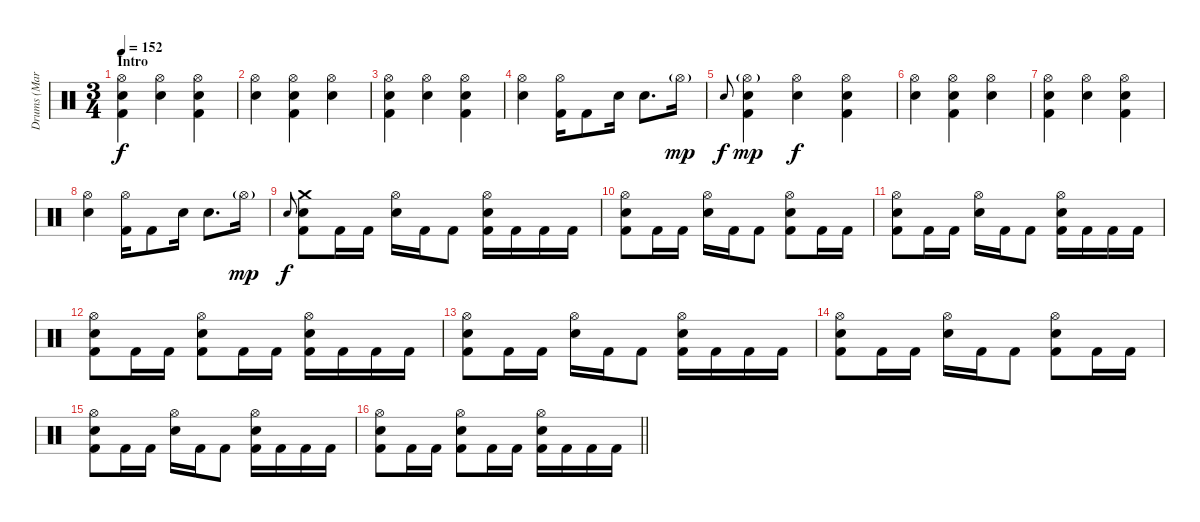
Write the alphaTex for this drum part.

\track ("Drums (Mark Arrington)" "Drums (Mar") {instrument percussion}
\staff {score}
\articulation defaults
\ts (3 4)
\section ("" "Intro")
\tempo 152
\clef neutral
\ks aminor
("Hi-Hat (open)" "Electric Snare (hit)" "Kick (hit) 2").4{dy f} ("Hi-Hat (open)" "Electric Snare (hit)").4 ("Hi-Hat (open)" "Electric Snare (hit)" "Kick (hit) 2").4 |
("Hi-Hat (open)" "Electric Snare (hit)").4 ("Hi-Hat (open)" "Electric Snare (hit)" "Kick (hit) 2").4 ("Hi-Hat (open)" "Electric Snare (hit)").4 |
("Hi-Hat (open)" "Electric Snare (hit)" "Kick (hit) 2").4 ("Hi-Hat (open)" "Electric Snare (hit)").4 ("Hi-Hat (open)" "Electric Snare (hit)" "Kick (hit) 2").4 |
("Hi-Hat (open)" "Electric Snare (hit)").4 ("Hi-Hat (open)" "Kick (hit) 2").16 "Kick (hit) 2".8 "Electric Snare (hit)".16 "Electric Snare (hit)".8{d} "Hi-Hat (open)"{g}.16{dy mp} |
"Electric Snare (hit)".8{gr onbeat dy f} ("Hi-Hat (open)"{g} "Electric Snare (hit)" "Kick (hit) 2").4{dy mp} ("Hi-Hat (open)" "Electric Snare (hit)").4{dy f} ("Hi-Hat (open)" "Electric Snare (hit)" "Kick (hit) 2").4 |
("Hi-Hat (open)" "Electric Snare (hit)").4 ("Hi-Hat (open)" "Electric Snare (hit)" "Kick (hit) 2").4 ("Hi-Hat (open)" "Electric Snare (hit)").4 |
("Hi-Hat (open)" "Electric Snare (hit)" "Kick (hit) 2").4 ("Hi-Hat (open)" "Electric Snare (hit)").4 ("Hi-Hat (open)" "Electric Snare (hit)" "Kick (hit) 2").4 |
("Hi-Hat (open)" "Electric Snare (hit)").4 ("Hi-Hat (open)" "Kick (hit) 2").16 "Kick (hit) 2".8 "Electric Snare (hit)".16 "Electric Snare (hit)".8{d} "Hi-Hat (open)"{g}.16{dy mp} |
"Electric Snare (hit)".8{gr onbeat dy f} ("Crash medium (hit)" "Electric Snare (hit)" "Kick (hit) 2").8 "Kick (hit) 2".16 "Kick (hit) 2".16 ("Hi-Hat (open)" "Electric Snare (hit)").16 "Kick (hit) 2".16 "Kick (hit) 2".8 ("Hi-Hat (open)" "Electric Snare (hit)" "Kick (hit) 2").16 "Kick (hit) 2".16 "Kick (hit) 2".16 "Kick (hit) 2".16 |
("Hi-Hat (open)" "Electric Snare (hit)" "Kick (hit) 2").8 "Kick (hit) 2".16 "Kick (hit) 2".16 ("Hi-Hat (open)" "Electric Snare (hit)").16 "Kick (hit) 2".16 "Kick (hit) 2".8 ("Hi-Hat (open)" "Electric Snare (hit)" "Kick (hit) 2").8 "Kick (hit) 2".16 "Kick (hit) 2".16 |
("Hi-Hat (open)" "Electric Snare (hit)" "Kick (hit) 2").8 "Kick (hit) 2".16 "Kick (hit) 2".16 ("Hi-Hat (open)" "Electric Snare (hit)").16 "Kick (hit) 2".16 "Kick (hit) 2".8 ("Hi-Hat (open)" "Electric Snare (hit)" "Kick (hit) 2").16 "Kick (hit) 2".16 "Kick (hit) 2".16 "Kick (hit) 2".16 |
("Hi-Hat (open)" "Electric Snare (hit)" "Kick (hit) 2").8 "Kick (hit) 2".16 "Kick (hit) 2".16 ("Hi-Hat (open)" "Electric Snare (hit)" "Kick (hit) 2").8 "Kick (hit) 2".16 "Kick (hit) 2".16 ("Hi-Hat (open)" "Electric Snare (hit)" "Kick (hit) 2").16 "Kick (hit) 2".16 "Kick (hit) 2".16 "Kick (hit) 2".16 |
("Hi-Hat (open)" "Electric Snare (hit)" "Kick (hit) 2").8 "Kick (hit) 2".16 "Kick (hit) 2".16 ("Hi-Hat (open)" "Electric Snare (hit)").16 "Kick (hit) 2".16 "Kick (hit) 2".8 ("Hi-Hat (open)" "Electric Snare (hit)" "Kick (hit) 2").16 "Kick (hit) 2".16 "Kick (hit) 2".16 "Kick (hit) 2".16 |
("Hi-Hat (open)" "Electric Snare (hit)" "Kick (hit) 2").8 "Kick (hit) 2".16 "Kick (hit) 2".16 ("Hi-Hat (open)" "Electric Snare (hit)").16 "Kick (hit) 2".16 "Kick (hit) 2".8 ("Hi-Hat (open)" "Electric Snare (hit)" "Kick (hit) 2").8 "Kick (hit) 2".16 "Kick (hit) 2".16 |
("Hi-Hat (open)" "Electric Snare (hit)" "Kick (hit) 2").8 "Kick (hit) 2".16 "Kick (hit) 2".16 ("Hi-Hat (open)" "Electric Snare (hit)").16 "Kick (hit) 2".16 "Kick (hit) 2".8 ("Hi-Hat (open)" "Electric Snare (hit)" "Kick (hit) 2").16 "Kick (hit) 2".16 "Kick (hit) 2".16 "Kick (hit) 2".16 |
\barLineRight lightlight
("Hi-Hat (open)" "Electric Snare (hit)" "Kick (hit) 2").8 "Kick (hit) 2".16 "Kick (hit) 2".16 ("Hi-Hat (open)" "Electric Snare (hit)" "Kick (hit) 2").8 "Kick (hit) 2".16 "Kick (hit) 2".16 ("Hi-Hat (open)" "Electric Snare (hit)" "Kick (hit) 2").16 "Kick (hit) 2".16 "Kick (hit) 2".16 "Kick (hit) 2".16
